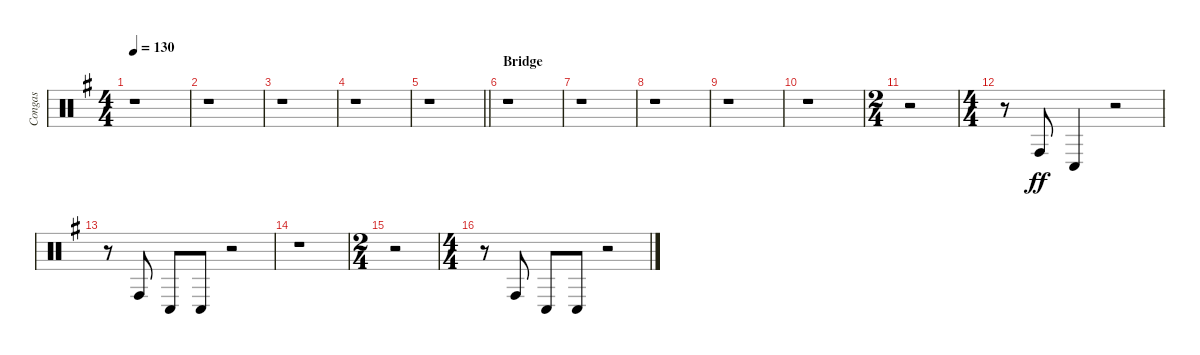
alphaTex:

\track ("Congas" "Congas") {instrument percussion}
\staff {score}
\articulation defaults
\ts (4 4)
\tempo 130
\clef neutral
\ks g
r.1{dy ff} |
r.1 |
r.1 |
r.1 |
\barLineRight lightlight
r.1 |
\section ("" "Bridge")
r.1 |
r.1 |
r.1 |
r.1 |
r.1 |
\ts (2 4)
r.2 |
\ts (4 4)
r.8 "Conga high (hit)".8 "Conga low (hit)".4 r.2 |
r.8 "Conga high (hit)".8 "Conga low (hit)".8 "Conga low (hit)".8 r.2 |
r.1 |
\ts (2 4)
r.2 |
\ts (4 4)
r.8 "Conga high (hit)".8 "Conga low (hit)".8 "Conga low (hit)".8 r.2
